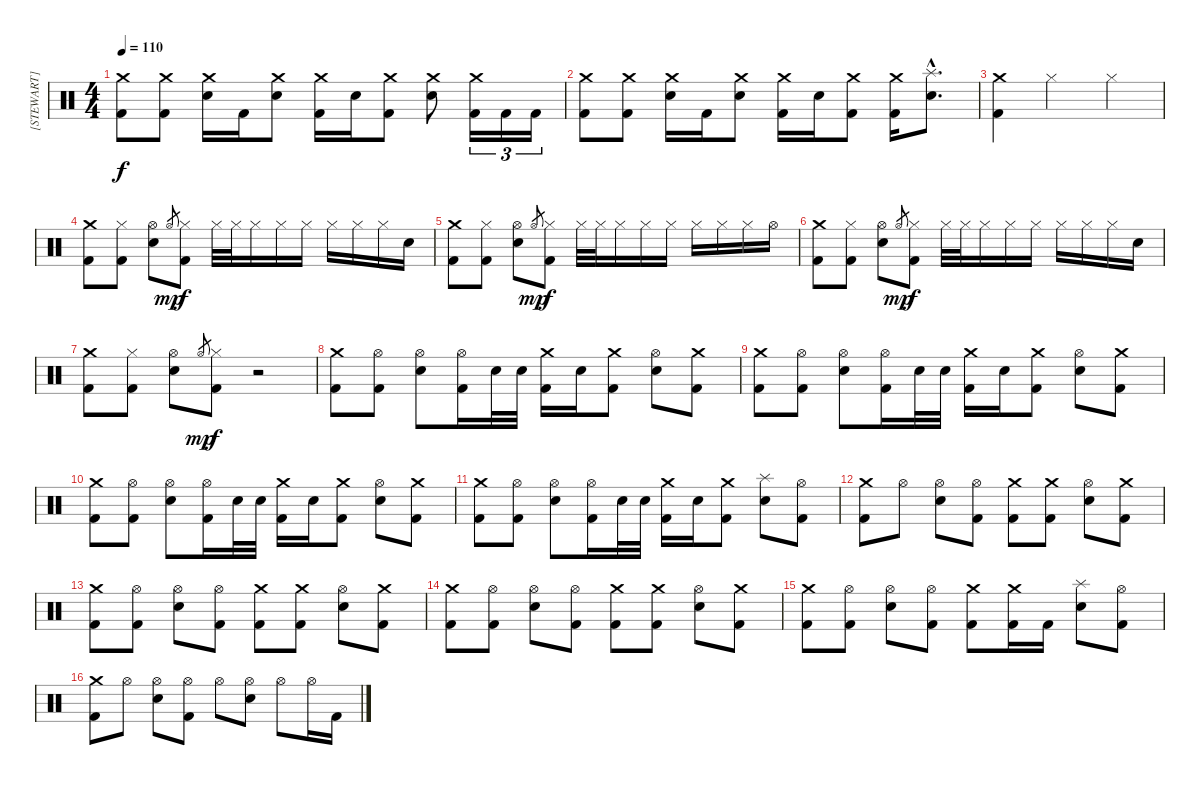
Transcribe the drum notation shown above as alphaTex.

\track ("[STEWART]" "[STEWART]") {instrument percussion}
\staff {score}
\articulation defaults
\ts (4 4)
\tempo 110
\clef neutral
\ks c
("Crash medium (hit)" "Kick (hit) 2").8{dy f} ("Crash medium (hit)" "Kick (hit) 2").8 ("Crash medium (hit)" "Electric Snare (hit)").16 "Kick (hit) 2".16 ("Crash medium (hit)" "Electric Snare (hit)").8 ("Crash medium (hit)" "Kick (hit) 2").16 "Electric Snare (hit)".16 ("Crash medium (hit)" "Kick (hit) 2").8 ("Crash medium (hit)" "Electric Snare (hit)").8 ("Crash medium (hit)" "Kick (hit) 2").16{tu (3 2)} "Kick (hit) 2".16{tu (3 2)} "Kick (hit) 2".16{tu (3 2)} |
("Crash medium (hit)" "Kick (hit) 2").8 ("Crash medium (hit)" "Kick (hit) 2").8 ("Crash medium (hit)" "Electric Snare (hit)").16 "Kick (hit) 2".16 ("Crash medium (hit)" "Electric Snare (hit)").8 ("Crash medium (hit)" "Kick (hit) 2").16 "Electric Snare (hit)".16 ("Crash medium (hit)" "Kick (hit) 2").8 ("Crash medium (hit)" "Kick (hit) 2").16 ("Splash (hit)"{hac} "Electric Snare (hit)"{hac}).8{d} |
("Crash medium (hit)" "Kick (hit) 2").4 "Hi-Hat (closed)".2 "Hi-Hat (closed)".4 |
("Crash medium (hit)" "Kick (hit) 2").8 ("Hi-Hat (closed)" "Kick (hit) 2").8 ("Hi-Hat (open)" "Electric Snare (hit)").8 "Hi-Hat (open)".8{gr dy mp} ("Hi-Hat (closed)" "Kick (hit) 2").8{dy f} "Hi-Hat (closed)".32 "Hi-Hat (closed)".32 "Hi-Hat (closed)".16 "Hi-Hat (closed)".16 "Hi-Hat (closed)".16 "Hi-Hat (closed)".16 "Hi-Hat (closed)".16 "Hi-Hat (closed)".16 "Electric Snare (hit)".16 |
("Crash medium (hit)" "Kick (hit) 2").8 ("Hi-Hat (closed)" "Kick (hit) 2").8 ("Hi-Hat (open)" "Electric Snare (hit)").8 "Hi-Hat (open)".8{gr dy mp} ("Hi-Hat (closed)" "Kick (hit) 2").8{dy f} "Hi-Hat (closed)".32 "Hi-Hat (closed)".32 "Hi-Hat (closed)".16 "Hi-Hat (closed)".16 "Hi-Hat (closed)".16 "Hi-Hat (closed)".16 "Hi-Hat (closed)".16 "Hi-Hat (closed)".16 "Hi-Hat (open)".16 |
("Crash medium (hit)" "Kick (hit) 2").8 ("Hi-Hat (closed)" "Kick (hit) 2").8 ("Hi-Hat (open)" "Electric Snare (hit)").8 "Hi-Hat (open)".8{gr dy mp} ("Hi-Hat (closed)" "Kick (hit) 2").8{dy f} "Hi-Hat (closed)".32 "Hi-Hat (closed)".32 "Hi-Hat (closed)".16 "Hi-Hat (closed)".16 "Hi-Hat (closed)".16 "Hi-Hat (closed)".16 "Hi-Hat (closed)".16 "Hi-Hat (closed)".16 "Electric Snare (hit)".16 |
("Crash medium (hit)" "Kick (hit) 2").8 ("Hi-Hat (closed)" "Kick (hit) 2").8 ("Hi-Hat (open)" "Electric Snare (hit)").8 "Hi-Hat (open)".8{gr dy mp} ("Hi-Hat (closed)" "Kick (hit) 2").8{dy f} r.2 |
("Crash medium (hit)" "Kick (hit) 2").8 ("Hi-Hat (open)" "Kick (hit) 2").8 ("Hi-Hat (open)" "Electric Snare (hit)").8 ("Hi-Hat (open)" "Kick (hit) 2").16 "Electric Snare (hit)".32 "Electric Snare (hit)".32 ("Crash medium (hit)" "Kick (hit) 2").16 "Electric Snare (hit)".16 ("Crash medium (hit)" "Kick (hit) 2").8 ("Hi-Hat (open)" "Electric Snare (hit)").8 ("Crash medium (hit)" "Kick (hit) 2").8 |
("Crash medium (hit)" "Kick (hit) 2").8 ("Hi-Hat (open)" "Kick (hit) 2").8 ("Hi-Hat (open)" "Electric Snare (hit)").8 ("Hi-Hat (open)" "Kick (hit) 2").16 "Electric Snare (hit)".32 "Electric Snare (hit)".32 ("Crash medium (hit)" "Kick (hit) 2").16 "Electric Snare (hit)".16 ("Crash medium (hit)" "Kick (hit) 2").8 ("Hi-Hat (open)" "Electric Snare (hit)").8 ("Crash medium (hit)" "Kick (hit) 2").8 |
("Crash medium (hit)" "Kick (hit) 2").8 ("Hi-Hat (open)" "Kick (hit) 2").8 ("Hi-Hat (open)" "Electric Snare (hit)").8 ("Hi-Hat (open)" "Kick (hit) 2").16 "Electric Snare (hit)".32 "Electric Snare (hit)".32 ("Crash medium (hit)" "Kick (hit) 2").16 "Electric Snare (hit)".16 ("Crash medium (hit)" "Kick (hit) 2").8 ("Hi-Hat (open)" "Electric Snare (hit)").8 ("Crash medium (hit)" "Kick (hit) 2").8 |
("Crash medium (hit)" "Kick (hit) 2").8 ("Hi-Hat (open)" "Kick (hit) 2").8 ("Hi-Hat (open)" "Electric Snare (hit)").8 ("Hi-Hat (open)" "Kick (hit) 2").16 "Electric Snare (hit)".32 "Electric Snare (hit)".32 ("Crash medium (hit)" "Kick (hit) 2").16 "Electric Snare (hit)".16 ("Crash medium (hit)" "Kick (hit) 2").8 ("Splash (hit)" "Electric Snare (hit)").8 ("Hi-Hat (open)" "Kick (hit) 2").8 |
("Crash medium (hit)" "Kick (hit) 2").8 "Hi-Hat (open)".8 ("Hi-Hat (open)" "Electric Snare (hit)").8 ("Hi-Hat (open)" "Kick (hit) 2").8 ("Crash medium (hit)" "Kick (hit) 2").8 ("Crash medium (hit)" "Kick (hit) 2").8 ("Hi-Hat (open)" "Electric Snare (hit)").8 ("Crash medium (hit)" "Kick (hit) 2").8 |
("Crash medium (hit)" "Kick (hit) 2").8 ("Hi-Hat (open)" "Kick (hit) 2").8 ("Hi-Hat (open)" "Electric Snare (hit)").8 ("Hi-Hat (open)" "Kick (hit) 2").8 ("Crash medium (hit)" "Kick (hit) 2").8 ("Crash medium (hit)" "Kick (hit) 2").8 ("Hi-Hat (open)" "Electric Snare (hit)").8 ("Crash medium (hit)" "Kick (hit) 2").8 |
("Crash medium (hit)" "Kick (hit) 2").8 ("Hi-Hat (open)" "Kick (hit) 2").8 ("Hi-Hat (open)" "Electric Snare (hit)").8 ("Hi-Hat (open)" "Kick (hit) 2").8 ("Crash medium (hit)" "Kick (hit) 2").8 ("Crash medium (hit)" "Kick (hit) 2").8 ("Hi-Hat (open)" "Electric Snare (hit)").8 ("Crash medium (hit)" "Kick (hit) 2").8 |
("Crash medium (hit)" "Kick (hit) 2").8 ("Hi-Hat (open)" "Kick (hit) 2").8 ("Hi-Hat (open)" "Electric Snare (hit)").8 ("Hi-Hat (open)" "Kick (hit) 2").8 ("Crash medium (hit)" "Kick (hit) 2").8 ("Crash medium (hit)" "Kick (hit) 2").16 "Kick (hit) 2".16 ("Splash (hit)" "Electric Snare (hit)").8 ("Hi-Hat (open)" "Kick (hit) 2").8 |
("Crash medium (hit)" "Kick (hit) 2").8 "Hi-Hat (open)".8 ("Hi-Hat (open)" "Electric Snare (hit)").8 ("Hi-Hat (open)" "Kick (hit) 2").8 "Hi-Hat (open)".8 ("Hi-Hat (open)" "Electric Snare (hit)").8 "Hi-Hat (open)".8 "Hi-Hat (open)".16 "Kick (hit) 2".16
